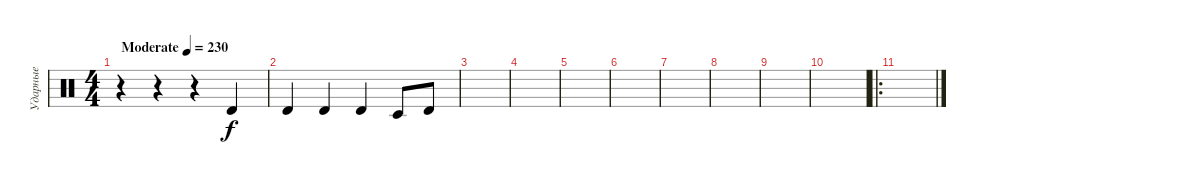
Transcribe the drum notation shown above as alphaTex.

\track ("Ударные" "Ударные") {instrument percussion}
\staff {score}
\articulation defaults
\ts (4 4)
\tempo (230 "Moderate")
\clef neutral
\ks c
r.4{dy f} r.4 r.4 "Timbale high (hit)".4 |
"Timbale high (hit)".4 "Timbale high (hit)".4 "Timbale high (hit)".4 "Timbale low (hit)".8 "Timbale high (hit)".8 |
|
|
|
|
|
|
|
|
\ro
